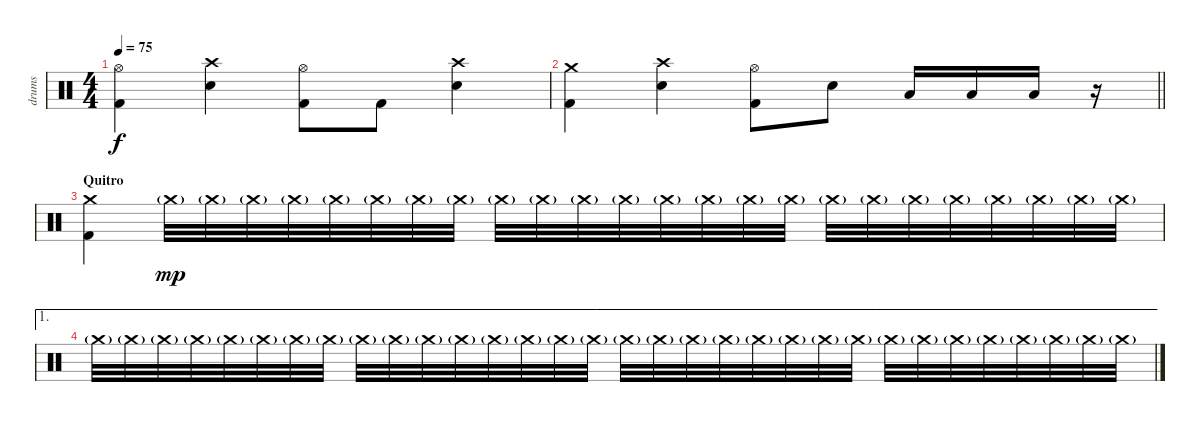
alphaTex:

\track ("drums" "drums") {instrument percussion}
\staff {score}
\articulation defaults
\ts (4 4)
\tempo 75
\clef neutral
\ks c
("Hi-Hat (open)" "Kick (hit) 2").4{dy f} ("Crash high (hit)" "Snare (hit) 2").4 ("Hi-Hat (open)" "Kick (hit) 2").8 "Kick (hit) 2".8 ("Crash high (hit)" "Snare (hit) 2").4 |
\barLineRight lightlight
("Crash medium (hit)" "Kick (hit) 2").4 ("Crash high (hit)" "Snare (hit) 2").4 ("Hi-Hat (open)" "Kick (hit) 2").8 "Snare (hit) 2".8 "Low Tom (hit)".16 "Low Tom (hit)".16 "Low Tom (hit)".16 r.16 |
\section ("" "Quitro")
("Crash medium (hit)" "Kick (hit) 2").4 "Crash medium (hit)"{g}.32{dy mp} "Crash medium (hit)"{g}.32 "Crash medium (hit)"{g}.32 "Crash medium (hit)"{g}.32 "Crash medium (hit)"{g}.32 "Crash medium (hit)"{g}.32 "Crash medium (hit)"{g}.32 "Crash medium (hit)"{g}.32 "Crash medium (hit)"{g}.32 "Crash medium (hit)"{g}.32 "Crash medium (hit)"{g}.32 "Crash medium (hit)"{g}.32 "Crash medium (hit)"{g}.32 "Crash medium (hit)"{g}.32 "Crash medium (hit)"{g}.32 "Crash medium (hit)"{g}.32 "Crash medium (hit)"{g}.32 "Crash medium (hit)"{g}.32 "Crash medium (hit)"{g}.32 "Crash medium (hit)"{g}.32 "Crash medium (hit)"{g}.32 "Crash medium (hit)"{g}.32 "Crash medium (hit)"{g}.32 "Crash medium (hit)"{g}.32 |
\ae 1 "Crash medium (hit)"{g}.32 "Crash medium (hit)"{g}.32 "Crash medium (hit)"{g}.32 "Crash medium (hit)"{g}.32 "Crash medium (hit)"{g}.32 "Crash medium (hit)"{g}.32 "Crash medium (hit)"{g}.32 "Crash medium (hit)"{g}.32 "Crash medium (hit)"{g}.32 "Crash medium (hit)"{g}.32 "Crash medium (hit)"{g}.32 "Crash medium (hit)"{g}.32 "Crash medium (hit)"{g}.32 "Crash medium (hit)"{g}.32 "Crash medium (hit)"{g}.32 "Crash medium (hit)"{g}.32 "Crash medium (hit)"{g}.32 "Crash medium (hit)"{g}.32 "Crash medium (hit)"{g}.32 "Crash medium (hit)"{g}.32 "Crash medium (hit)"{g}.32 "Crash medium (hit)"{g}.32 "Crash medium (hit)"{g}.32 "Crash medium (hit)"{g}.32 "Crash medium (hit)"{g}.32 "Crash medium (hit)"{g}.32 "Crash medium (hit)"{g}.32 "Crash medium (hit)"{g}.32 "Crash medium (hit)"{g}.32 "Crash medium (hit)"{g}.32 "Crash medium (hit)"{g}.32 "Crash medium (hit)"{g}.32
